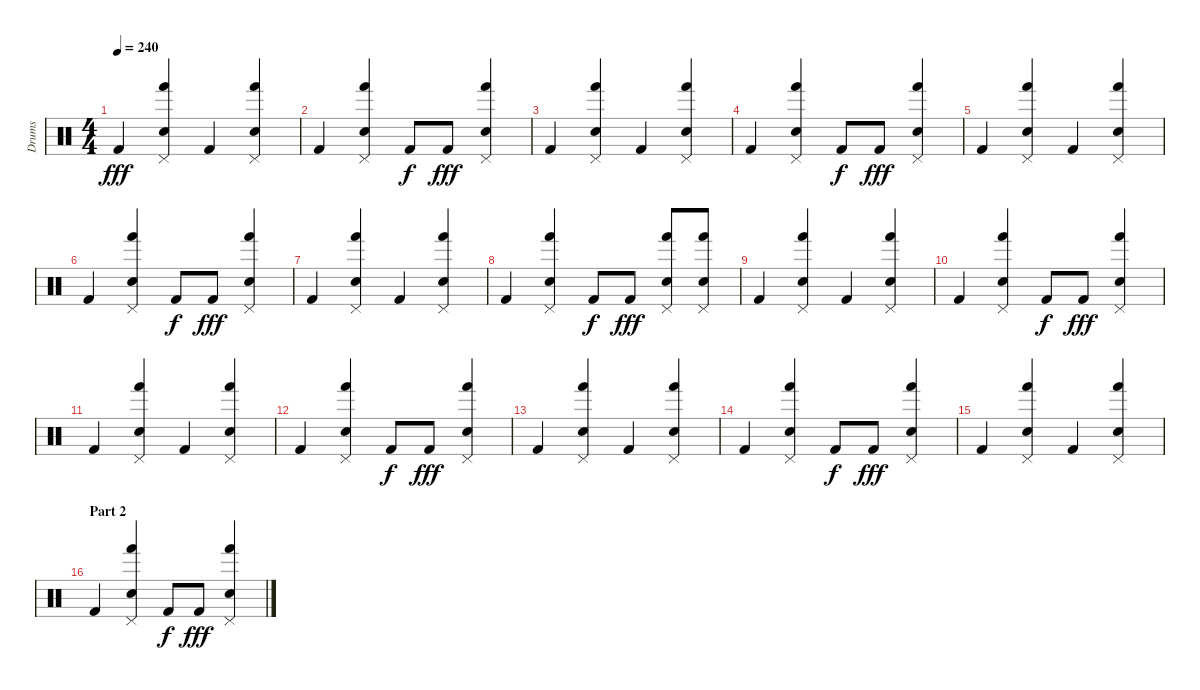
\track ("Drums" "Drums") {instrument percussion}
\staff {score}
\articulation defaults
\ts (4 4)
\tempo 240
\clef neutral
\ks c "Kick (hit) 2".4{dy fff}
("Pedal Hi-Hat (hit)" "Hand (hit)" "Electric Snare (hit)").4 "Kick (hit) 2".4 ("Pedal Hi-Hat (hit)" "Hand (hit)" "Electric Snare (hit)").4 |
"Kick (hit) 2".4 ("Pedal Hi-Hat (hit)" "Hand (hit)" "Electric Snare (hit)").4 "Kick (hit) 2".8{dy f} "Kick (hit) 2".8{dy fff} ("Pedal Hi-Hat (hit)" "Hand (hit)" "Electric Snare (hit)").4 |
"Kick (hit) 2".4 ("Pedal Hi-Hat (hit)" "Hand (hit)" "Electric Snare (hit)").4 "Kick (hit) 2".4 ("Pedal Hi-Hat (hit)" "Hand (hit)" "Electric Snare (hit)").4 |
"Kick (hit) 2".4 ("Pedal Hi-Hat (hit)" "Hand (hit)" "Electric Snare (hit)").4 "Kick (hit) 2".8{dy f} "Kick (hit) 2".8{dy fff} ("Pedal Hi-Hat (hit)" "Hand (hit)" "Electric Snare (hit)").4 |
"Kick (hit) 2".4 ("Pedal Hi-Hat (hit)" "Hand (hit)" "Electric Snare (hit)").4 "Kick (hit) 2".4 ("Pedal Hi-Hat (hit)" "Hand (hit)" "Electric Snare (hit)").4 |
"Kick (hit) 2".4 ("Pedal Hi-Hat (hit)" "Hand (hit)" "Electric Snare (hit)").4 "Kick (hit) 2".8{dy f} "Kick (hit) 2".8{dy fff} ("Pedal Hi-Hat (hit)" "Hand (hit)" "Electric Snare (hit)").4 |
"Kick (hit) 2".4 ("Pedal Hi-Hat (hit)" "Hand (hit)" "Electric Snare (hit)").4 "Kick (hit) 2".4 ("Pedal Hi-Hat (hit)" "Hand (hit)" "Electric Snare (hit)").4 |
"Kick (hit) 2".4 ("Pedal Hi-Hat (hit)" "Hand (hit)" "Electric Snare (hit)").4 "Kick (hit) 2".8{dy f} "Kick (hit) 2".8{dy fff} ("Pedal Hi-Hat (hit)" "Hand (hit)" "Electric Snare (hit)").8 ("Pedal Hi-Hat (hit)" "Hand (hit)" "Electric Snare (hit)").8 |
"Kick (hit) 2".4 ("Pedal Hi-Hat (hit)" "Hand (hit)" "Electric Snare (hit)").4 "Kick (hit) 2".4 ("Pedal Hi-Hat (hit)" "Hand (hit)" "Electric Snare (hit)").4 |
"Kick (hit) 2".4 ("Pedal Hi-Hat (hit)" "Hand (hit)" "Electric Snare (hit)").4 "Kick (hit) 2".8{dy f} "Kick (hit) 2".8{dy fff} ("Pedal Hi-Hat (hit)" "Hand (hit)" "Electric Snare (hit)").4 |
"Kick (hit) 2".4 ("Pedal Hi-Hat (hit)" "Hand (hit)" "Electric Snare (hit)").4 "Kick (hit) 2".4 ("Pedal Hi-Hat (hit)" "Hand (hit)" "Electric Snare (hit)").4 |
"Kick (hit) 2".4 ("Pedal Hi-Hat (hit)" "Hand (hit)" "Electric Snare (hit)").4 "Kick (hit) 2".8{dy f} "Kick (hit) 2".8{dy fff} ("Pedal Hi-Hat (hit)" "Hand (hit)" "Electric Snare (hit)").4 |
"Kick (hit) 2".4 ("Pedal Hi-Hat (hit)" "Hand (hit)" "Electric Snare (hit)").4 "Kick (hit) 2".4 ("Pedal Hi-Hat (hit)" "Hand (hit)" "Electric Snare (hit)").4 |
"Kick (hit) 2".4 ("Pedal Hi-Hat (hit)" "Hand (hit)" "Electric Snare (hit)").4 "Kick (hit) 2".8{dy f} "Kick (hit) 2".8{dy fff} ("Pedal Hi-Hat (hit)" "Hand (hit)" "Electric Snare (hit)").4 |
"Kick (hit) 2".4 ("Pedal Hi-Hat (hit)" "Hand (hit)" "Electric Snare (hit)").4 "Kick (hit) 2".4 ("Pedal Hi-Hat (hit)" "Hand (hit)" "Electric Snare (hit)").4 |
\section ("" "Part 2")
"Kick (hit) 2".4 ("Pedal Hi-Hat (hit)" "Hand (hit)" "Electric Snare (hit)").4 "Kick (hit) 2".8{dy f} "Kick (hit) 2".8{dy fff} ("Pedal Hi-Hat (hit)" "Hand (hit)" "Electric Snare (hit)").4
